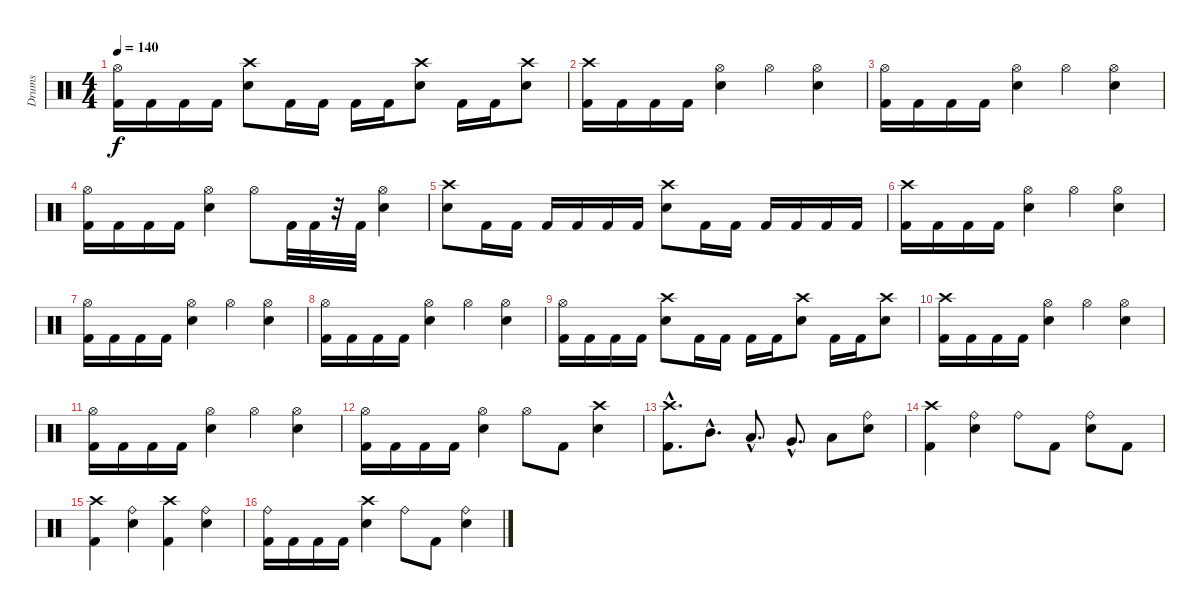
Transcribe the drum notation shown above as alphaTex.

\track ("Drums" "Drums") {instrument percussion}
\staff {score}
\articulation defaults
\ts (4 4)
\tempo 140
\clef neutral
\ks c
("Hi-Hat (open)" "Kick (hit) 2").16{dy f} "Kick (hit) 2".16 "Kick (hit) 2".16 "Kick (hit) 2".16 ("Crash high (hit)" "Snare (hit) 2").8 "Kick (hit) 2".16 "Kick (hit) 2".16 "Kick (hit) 2".16 "Kick (hit) 2".16 ("Snare (hit) 2" "Crash high (hit)").8 "Kick (hit) 2".16 "Kick (hit) 2".16 ("Snare (hit) 2" "Crash high (hit)").8 |
("Crash high (hit)" "Kick (hit) 2").16 "Kick (hit) 2".16 "Kick (hit) 2".16 "Kick (hit) 2".16 ("Hi-Hat (open)" "Snare (hit) 2").4 "Hi-Hat (open)".4 ("Hi-Hat (open)" "Snare (hit) 2").4 |
("Kick (hit) 2" "Hi-Hat (open)").16 "Kick (hit) 2".16 "Kick (hit) 2".16 "Kick (hit) 2".16 ("Hi-Hat (open)" "Snare (hit) 2").4 "Hi-Hat (open)".4 ("Hi-Hat (open)" "Snare (hit) 2").4 |
("Kick (hit) 2" "Hi-Hat (open)").16 "Kick (hit) 2".16 "Kick (hit) 2".16 "Kick (hit) 2".16 ("Snare (hit) 2" "Hi-Hat (open)").4 "Hi-Hat (open)".8 "Kick (hit) 2".32 "Kick (hit) 2".32 r.32 "Kick (hit) 2".32 ("Hi-Hat (open)" "Snare (hit) 2").4 |
("Crash high (hit)" "Snare (hit) 2").8 "Kick (hit) 2".16 "Kick (hit) 2".16 "Kick (hit) 2".16 "Kick (hit) 2".16 "Kick (hit) 2".16 "Kick (hit) 2".16 ("Crash high (hit)" "Snare (hit) 2").8 "Kick (hit) 2".16 "Kick (hit) 2".16 "Kick (hit) 2".16 "Kick (hit) 2".16 "Kick (hit) 2".16 "Kick (hit) 2".16 |
("Kick (hit) 2" "Crash high (hit)").16 "Kick (hit) 2".16 "Kick (hit) 2".16 "Kick (hit) 2".16 ("Snare (hit) 2" "Hi-Hat (open)").4 "Hi-Hat (open)".4 ("Snare (hit) 2" "Hi-Hat (open)").4 |
("Hi-Hat (open)" "Kick (hit) 2").16 "Kick (hit) 2".16 "Kick (hit) 2".16 "Kick (hit) 2".16 ("Snare (hit) 2" "Hi-Hat (open)").4 "Hi-Hat (open)".4 ("Snare (hit) 2" "Hi-Hat (open)").4 |
("Kick (hit) 2" "Hi-Hat (open)").16 "Kick (hit) 2".16 "Kick (hit) 2".16 "Kick (hit) 2".16 ("Snare (hit) 2" "Hi-Hat (open)").4 "Hi-Hat (open)".4 ("Hi-Hat (open)" "Snare (hit) 2").4 |
("Hi-Hat (open)" "Kick (hit) 2").16 "Kick (hit) 2".16 "Kick (hit) 2".16 "Kick (hit) 2".16 ("Crash high (hit)" "Snare (hit) 2").8 "Kick (hit) 2".16 "Kick (hit) 2".16 "Kick (hit) 2".16 "Kick (hit) 2".16 ("Crash high (hit)" "Snare (hit) 2").8 "Kick (hit) 2".16 "Kick (hit) 2".16 ("Snare (hit) 2" "Crash high (hit)").8 |
("Kick (hit) 2" "Crash high (hit)").16 "Kick (hit) 2".16 "Kick (hit) 2".16 "Kick (hit) 2".16 ("Hi-Hat (open)" "Snare (hit) 2").4 "Hi-Hat (open)".4 ("Snare (hit) 2" "Hi-Hat (open)").4 |
("Hi-Hat (open)" "Kick (hit) 2").16 "Kick (hit) 2".16 "Kick (hit) 2".16 "Kick (hit) 2".16 ("Snare (hit) 2" "Hi-Hat (open)").4 "Hi-Hat (open)".4 ("Snare (hit) 2" "Hi-Hat (open)").4 |
("Kick (hit) 2" "Hi-Hat (open)").16 "Kick (hit) 2".16 "Kick (hit) 2".16 "Kick (hit) 2".16 ("Hi-Hat (open)" "Snare (hit) 2").4 "Hi-Hat (open)".8 "Kick (hit) 2".8 ("Crash high (hit)" "Snare (hit) 2").4 |
("Crash high (hit)"{hac} "Kick (hit) 2").8{d} "Mid Tom (hit)"{hac}.8{d} "Low Tom (hit)"{hac}.8{d} "Very Low Tom (hit)"{hac}.8{d} "Low Floor Tom (hit)".8 ("Ride (bell)" "Snare (hit) 2").8 |
("Crash high (hit)" "Kick (hit) 2").4 ("Ride (bell)" "Snare (hit) 2").4 "Ride (bell)".8 "Kick (hit) 2".8 ("Snare (hit) 2" "Ride (bell)").8 "Kick (hit) 2".8 |
("Kick (hit) 2" "Crash high (hit)").4 ("Ride (bell)" "Snare (hit) 2").4 ("Crash high (hit)" "Kick (hit) 2").4 ("Ride (bell)" "Snare (hit) 2").4 |
("Kick (hit) 2" "Ride (bell)").16 "Kick (hit) 2".16 "Kick (hit) 2".16 "Kick (hit) 2".16 ("Snare (hit) 2" "Crash high (hit)").4 "Ride (bell)".8 "Kick (hit) 2".8 ("Snare (hit) 2" "Ride (bell)").4
